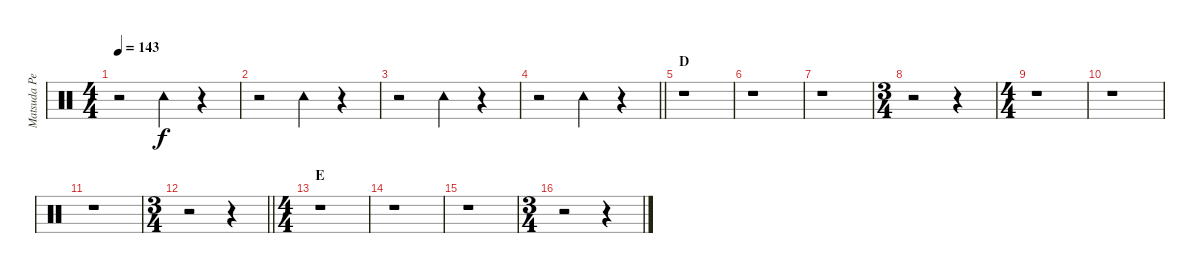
\track ("Matsuda Percussion" "Matsuda Pe") {instrument percussion}
\staff {score}
\articulation defaults
\ts (4 4)
\tempo 143
\clef neutral
\ks c
r.2{dy f} "Tambourine (hit)".4 r.4 |
r.2 "Tambourine (hit)".4 r.4 |
r.2 "Tambourine (hit)".4 r.4 |
\barLineRight lightlight
r.2 "Tambourine (hit)".4 r.4 |
\section ("" "D")
r.1 |
r.1 |
r.1 |
\ts (3 4)
r.2 r.4 |
\ts (4 4)
r.1 |
r.1 |
r.1 |
\ts (3 4)
\barLineRight lightlight
r.2 r.4 |
\ts (4 4)
\section ("" "E")
r.1 |
r.1 |
r.1 |
\ts (3 4)
r.2 r.4
